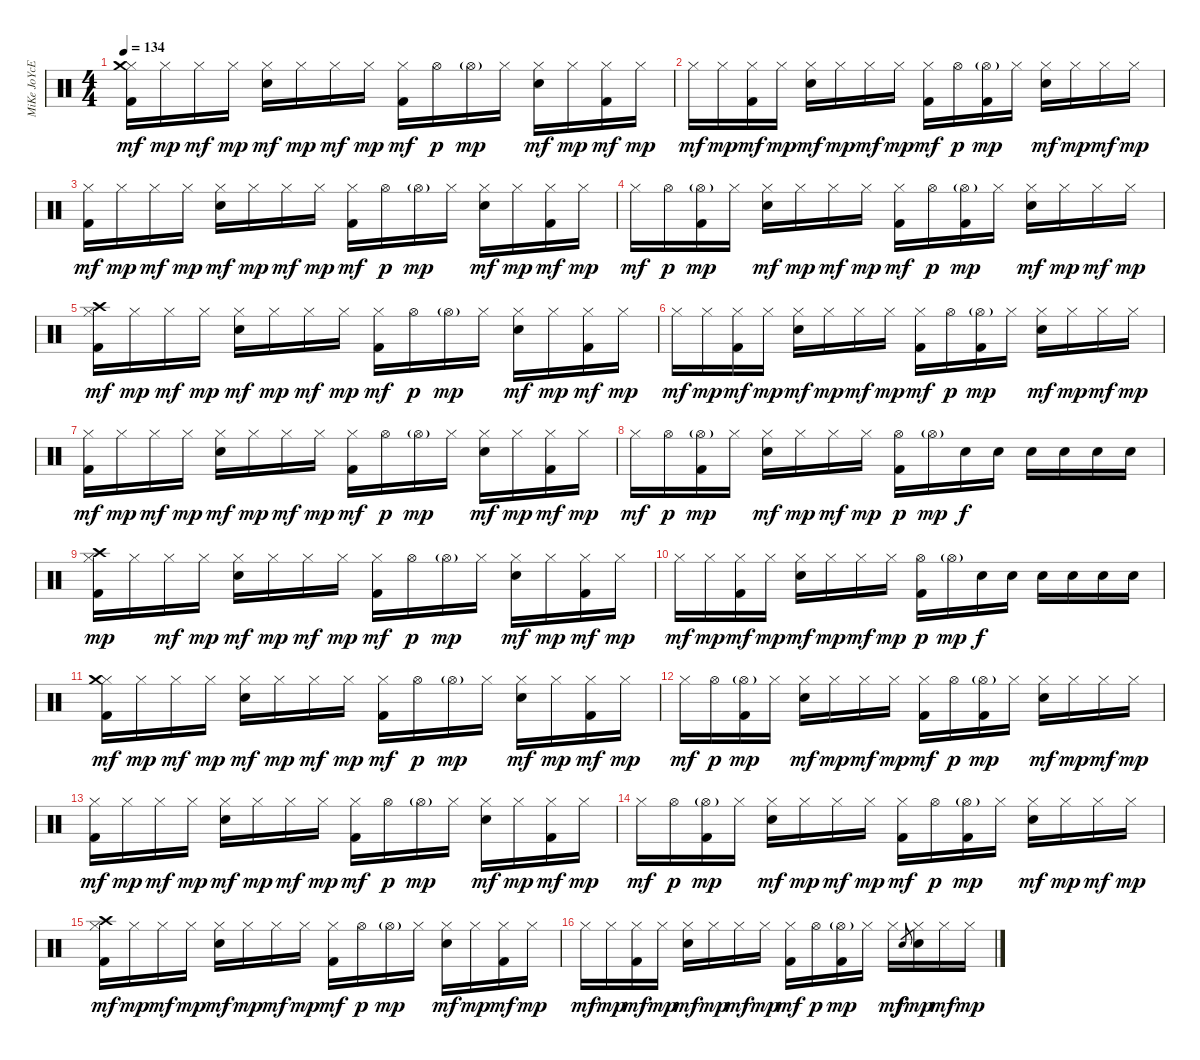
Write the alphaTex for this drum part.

\track ("MiKe JoYcE" "MiKe JoYcE") {instrument percussion}
\staff {score}
\articulation defaults
\ts (4 4)
\tempo 134
\clef neutral
\ks c
("Hi-Hat (closed)" "Crash medium (hit)" "Kick (hit) 2").16{dy mf} "Hi-Hat (closed)".16{dy mp} "Hi-Hat (closed)".16{dy mf} "Hi-Hat (closed)".16{dy mp} ("Hi-Hat (closed)" "Electric Snare (hit)").16{dy mf} "Hi-Hat (closed)".16{dy mp} "Hi-Hat (closed)".16{dy mf} "Hi-Hat (closed)".16{dy mp} ("Hi-Hat (closed)" "Kick (hit) 2").16{dy mf} "Hi-Hat (open)".16{dy p} "Hi-Hat (open)"{g}.16{dy mp} "Hi-Hat (closed)".16 ("Hi-Hat (closed)" "Electric Snare (hit)").16{dy mf} "Hi-Hat (closed)".16{dy mp} ("Hi-Hat (closed)" "Kick (hit) 2").16{dy mf} "Hi-Hat (closed)".16{dy mp} |
"Hi-Hat (closed)".16{dy mf} "Hi-Hat (closed)".16{dy mp} ("Hi-Hat (closed)" "Kick (hit) 2").16{dy mf} "Hi-Hat (closed)".16{dy mp} ("Hi-Hat (closed)" "Electric Snare (hit)").16{dy mf} "Hi-Hat (closed)".16{dy mp} "Hi-Hat (closed)".16{dy mf} "Hi-Hat (closed)".16{dy mp} ("Hi-Hat (closed)" "Kick (hit) 2").16{dy mf} "Hi-Hat (open)".16{dy p} ("Hi-Hat (open)"{g} "Kick (hit) 2").16{dy mp} "Hi-Hat (closed)".16 ("Hi-Hat (closed)" "Electric Snare (hit)").16{dy mf} "Hi-Hat (closed)".16{dy mp} "Hi-Hat (closed)".16{dy mf} "Hi-Hat (closed)".16{dy mp} |
("Hi-Hat (closed)" "Kick (hit) 2").16{dy mf} "Hi-Hat (closed)".16{dy mp} "Hi-Hat (closed)".16{dy mf} "Hi-Hat (closed)".16{dy mp} ("Hi-Hat (closed)" "Electric Snare (hit)").16{dy mf} "Hi-Hat (closed)".16{dy mp} "Hi-Hat (closed)".16{dy mf} "Hi-Hat (closed)".16{dy mp} ("Hi-Hat (closed)" "Kick (hit) 2").16{dy mf} "Hi-Hat (open)".16{dy p} "Hi-Hat (open)"{g}.16{dy mp} "Hi-Hat (closed)".16 ("Hi-Hat (closed)" "Electric Snare (hit)").16{dy mf} "Hi-Hat (closed)".16{dy mp} ("Hi-Hat (closed)" "Kick (hit) 2").16{dy mf} "Hi-Hat (closed)".16{dy mp} |
"Hi-Hat (closed)".16{dy mf} "Hi-Hat (open)".16{dy p} ("Hi-Hat (open)"{g} "Kick (hit) 2").16{dy mp} "Hi-Hat (closed)".16 ("Hi-Hat (closed)" "Electric Snare (hit)").16{dy mf} "Hi-Hat (closed)".16{dy mp} "Hi-Hat (closed)".16{dy mf} "Hi-Hat (closed)".16{dy mp} ("Hi-Hat (closed)" "Kick (hit) 2").16{dy mf} "Hi-Hat (open)".16{dy p} ("Hi-Hat (open)"{g} "Kick (hit) 2").16{dy mp} "Hi-Hat (closed)".16 ("Hi-Hat (closed)" "Electric Snare (hit)").16{dy mf} "Hi-Hat (closed)".16{dy mp} "Hi-Hat (closed)".16{dy mf} "Hi-Hat (closed)".16{dy mp} |
("Hi-Hat (closed)" "Crash high (hit)" "Kick (hit) 2").16{dy mf} "Hi-Hat (closed)".16{dy mp} "Hi-Hat (closed)".16{dy mf} "Hi-Hat (closed)".16{dy mp} ("Hi-Hat (closed)" "Electric Snare (hit)").16{dy mf} "Hi-Hat (closed)".16{dy mp} "Hi-Hat (closed)".16{dy mf} "Hi-Hat (closed)".16{dy mp} ("Hi-Hat (closed)" "Kick (hit) 2").16{dy mf} "Hi-Hat (open)".16{dy p} "Hi-Hat (open)"{g}.16{dy mp} "Hi-Hat (closed)".16 ("Hi-Hat (closed)" "Electric Snare (hit)").16{dy mf} "Hi-Hat (closed)".16{dy mp} ("Hi-Hat (closed)" "Kick (hit) 2").16{dy mf} "Hi-Hat (closed)".16{dy mp} |
"Hi-Hat (closed)".16{dy mf} "Hi-Hat (closed)".16{dy mp} ("Hi-Hat (closed)" "Kick (hit) 2").16{dy mf} "Hi-Hat (closed)".16{dy mp} ("Hi-Hat (closed)" "Electric Snare (hit)").16{dy mf} "Hi-Hat (closed)".16{dy mp} "Hi-Hat (closed)".16{dy mf} "Hi-Hat (closed)".16{dy mp} ("Hi-Hat (closed)" "Kick (hit) 2").16{dy mf} "Hi-Hat (open)".16{dy p} ("Hi-Hat (open)"{g} "Kick (hit) 2").16{dy mp} "Hi-Hat (closed)".16 ("Hi-Hat (closed)" "Electric Snare (hit)").16{dy mf} "Hi-Hat (closed)".16{dy mp} "Hi-Hat (closed)".16{dy mf} "Hi-Hat (closed)".16{dy mp} |
("Hi-Hat (closed)" "Kick (hit) 2").16{dy mf} "Hi-Hat (closed)".16{dy mp} "Hi-Hat (closed)".16{dy mf} "Hi-Hat (closed)".16{dy mp} ("Hi-Hat (closed)" "Electric Snare (hit)").16{dy mf} "Hi-Hat (closed)".16{dy mp} "Hi-Hat (closed)".16{dy mf} "Hi-Hat (closed)".16{dy mp} ("Hi-Hat (closed)" "Kick (hit) 2").16{dy mf} "Hi-Hat (open)".16{dy p} "Hi-Hat (open)"{g}.16{dy mp} "Hi-Hat (closed)".16 ("Hi-Hat (closed)" "Electric Snare (hit)").16{dy mf} "Hi-Hat (closed)".16{dy mp} ("Hi-Hat (closed)" "Kick (hit) 2").16{dy mf} "Hi-Hat (closed)".16{dy mp} |
"Hi-Hat (closed)".16{dy mf} "Hi-Hat (open)".16{dy p} ("Hi-Hat (open)"{g} "Kick (hit) 2").16{dy mp} "Hi-Hat (closed)".16 ("Hi-Hat (closed)" "Electric Snare (hit)").16{dy mf} "Hi-Hat (closed)".16{dy mp} "Hi-Hat (closed)".16{dy mf} "Hi-Hat (closed)".16{dy mp} ("Hi-Hat (open)" "Kick (hit) 2").16{dy p} "Hi-Hat (open)"{g}.16{dy mp} "Electric Snare (hit)".16{dy f} "Electric Snare (hit)".16 "Electric Snare (hit)".16 "Electric Snare (hit)".16 "Electric Snare (hit)".16 "Electric Snare (hit)".16 |
("Hi-Hat (closed)" "Crash high (hit)" "Kick (hit) 2").16{dy mp} "Hi-Hat (closed)".16 "Hi-Hat (closed)".16{dy mf} "Hi-Hat (closed)".16{dy mp} ("Hi-Hat (closed)" "Electric Snare (hit)").16{dy mf} "Hi-Hat (closed)".16{dy mp} "Hi-Hat (closed)".16{dy mf} "Hi-Hat (closed)".16{dy mp} ("Hi-Hat (closed)" "Kick (hit) 2").16{dy mf} "Hi-Hat (open)".16{dy p} "Hi-Hat (open)"{g}.16{dy mp} "Hi-Hat (closed)".16 ("Hi-Hat (closed)" "Electric Snare (hit)").16{dy mf} "Hi-Hat (closed)".16{dy mp} ("Hi-Hat (closed)" "Kick (hit) 2").16{dy mf} "Hi-Hat (closed)".16{dy mp} |
"Hi-Hat (closed)".16{dy mf} "Hi-Hat (closed)".16{dy mp} ("Hi-Hat (closed)" "Kick (hit) 2").16{dy mf} "Hi-Hat (closed)".16{dy mp} ("Hi-Hat (closed)" "Electric Snare (hit)").16{dy mf} "Hi-Hat (closed)".16{dy mp} "Hi-Hat (closed)".16{dy mf} "Hi-Hat (closed)".16{dy mp} ("Hi-Hat (open)" "Kick (hit) 2").16{dy p} "Hi-Hat (open)"{g}.16{dy mp} "Electric Snare (hit)".16{dy f} "Electric Snare (hit)".16 "Electric Snare (hit)".16 "Electric Snare (hit)".16 "Electric Snare (hit)".16 "Electric Snare (hit)".16 |
("Hi-Hat (closed)" "Crash medium (hit)" "Kick (hit) 2").16{dy mf} "Hi-Hat (closed)".16{dy mp} "Hi-Hat (closed)".16{dy mf} "Hi-Hat (closed)".16{dy mp} ("Hi-Hat (closed)" "Electric Snare (hit)").16{dy mf} "Hi-Hat (closed)".16{dy mp} "Hi-Hat (closed)".16{dy mf} "Hi-Hat (closed)".16{dy mp} ("Hi-Hat (closed)" "Kick (hit) 2").16{dy mf} "Hi-Hat (open)".16{dy p} "Hi-Hat (open)"{g}.16{dy mp} "Hi-Hat (closed)".16 ("Hi-Hat (closed)" "Electric Snare (hit)").16{dy mf} "Hi-Hat (closed)".16{dy mp} ("Hi-Hat (closed)" "Kick (hit) 2").16{dy mf} "Hi-Hat (closed)".16{dy mp} |
"Hi-Hat (closed)".16{dy mf} "Hi-Hat (open)".16{dy p} ("Hi-Hat (open)"{g} "Kick (hit) 2").16{dy mp} "Hi-Hat (closed)".16 ("Hi-Hat (closed)" "Electric Snare (hit)").16{dy mf} "Hi-Hat (closed)".16{dy mp} "Hi-Hat (closed)".16{dy mf} "Hi-Hat (closed)".16{dy mp} ("Hi-Hat (closed)" "Kick (hit) 2").16{dy mf} "Hi-Hat (open)".16{dy p} ("Hi-Hat (open)"{g} "Kick (hit) 2").16{dy mp} "Hi-Hat (closed)".16 ("Hi-Hat (closed)" "Electric Snare (hit)").16{dy mf} "Hi-Hat (closed)".16{dy mp} "Hi-Hat (closed)".16{dy mf} "Hi-Hat (closed)".16{dy mp} |
("Hi-Hat (closed)" "Kick (hit) 2").16{dy mf} "Hi-Hat (closed)".16{dy mp} "Hi-Hat (closed)".16{dy mf} "Hi-Hat (closed)".16{dy mp} ("Hi-Hat (closed)" "Electric Snare (hit)").16{dy mf} "Hi-Hat (closed)".16{dy mp} "Hi-Hat (closed)".16{dy mf} "Hi-Hat (closed)".16{dy mp} ("Hi-Hat (closed)" "Kick (hit) 2").16{dy mf} "Hi-Hat (open)".16{dy p} "Hi-Hat (open)"{g}.16{dy mp} "Hi-Hat (closed)".16 ("Hi-Hat (closed)" "Electric Snare (hit)").16{dy mf} "Hi-Hat (closed)".16{dy mp} ("Hi-Hat (closed)" "Kick (hit) 2").16{dy mf} "Hi-Hat (closed)".16{dy mp} |
"Hi-Hat (closed)".16{dy mf} "Hi-Hat (open)".16{dy p} ("Hi-Hat (open)"{g} "Kick (hit) 2").16{dy mp} "Hi-Hat (closed)".16 ("Hi-Hat (closed)" "Electric Snare (hit)").16{dy mf} "Hi-Hat (closed)".16{dy mp} "Hi-Hat (closed)".16{dy mf} "Hi-Hat (closed)".16{dy mp} ("Hi-Hat (closed)" "Kick (hit) 2").16{dy mf} "Hi-Hat (open)".16{dy p} ("Hi-Hat (open)"{g} "Kick (hit) 2").16{dy mp} "Hi-Hat (closed)".16 ("Hi-Hat (closed)" "Electric Snare (hit)").16{dy mf} "Hi-Hat (closed)".16{dy mp} "Hi-Hat (closed)".16{dy mf} "Hi-Hat (closed)".16{dy mp} |
("Hi-Hat (closed)" "Crash high (hit)" "Kick (hit) 2").16{dy mf} "Hi-Hat (closed)".16{dy mp} "Hi-Hat (closed)".16{dy mf} "Hi-Hat (closed)".16{dy mp} ("Hi-Hat (closed)" "Electric Snare (hit)").16{dy mf} "Hi-Hat (closed)".16{dy mp} "Hi-Hat (closed)".16{dy mf} "Hi-Hat (closed)".16{dy mp} ("Hi-Hat (closed)" "Kick (hit) 2").16{dy mf} "Hi-Hat (open)".16{dy p} "Hi-Hat (open)"{g}.16{dy mp} "Hi-Hat (closed)".16 ("Hi-Hat (closed)" "Electric Snare (hit)").16{dy mf} "Hi-Hat (closed)".16{dy mp} ("Hi-Hat (closed)" "Kick (hit) 2").16{dy mf} "Hi-Hat (closed)".16{dy mp} |
"Hi-Hat (closed)".16{dy mf} "Hi-Hat (closed)".16{dy mp} ("Hi-Hat (closed)" "Kick (hit) 2").16{dy mf} "Hi-Hat (closed)".16{dy mp} ("Hi-Hat (closed)" "Electric Snare (hit)").16{dy mf} "Hi-Hat (closed)".16{dy mp} "Hi-Hat (closed)".16{dy mf} "Hi-Hat (closed)".16{dy mp} ("Hi-Hat (closed)" "Kick (hit) 2").16{dy mf} "Hi-Hat (open)".16{dy p} ("Hi-Hat (open)"{g} "Kick (hit) 2").16{dy mp} "Hi-Hat (closed)".16 "Hi-Hat (closed)".16{dy mf} "Electric Snare (hit)".8{gr dy f} ("Hi-Hat (closed)" "Electric Snare (hit)").16{dy mp} "Hi-Hat (closed)".16{dy mf} "Hi-Hat (closed)".16{dy mp}
